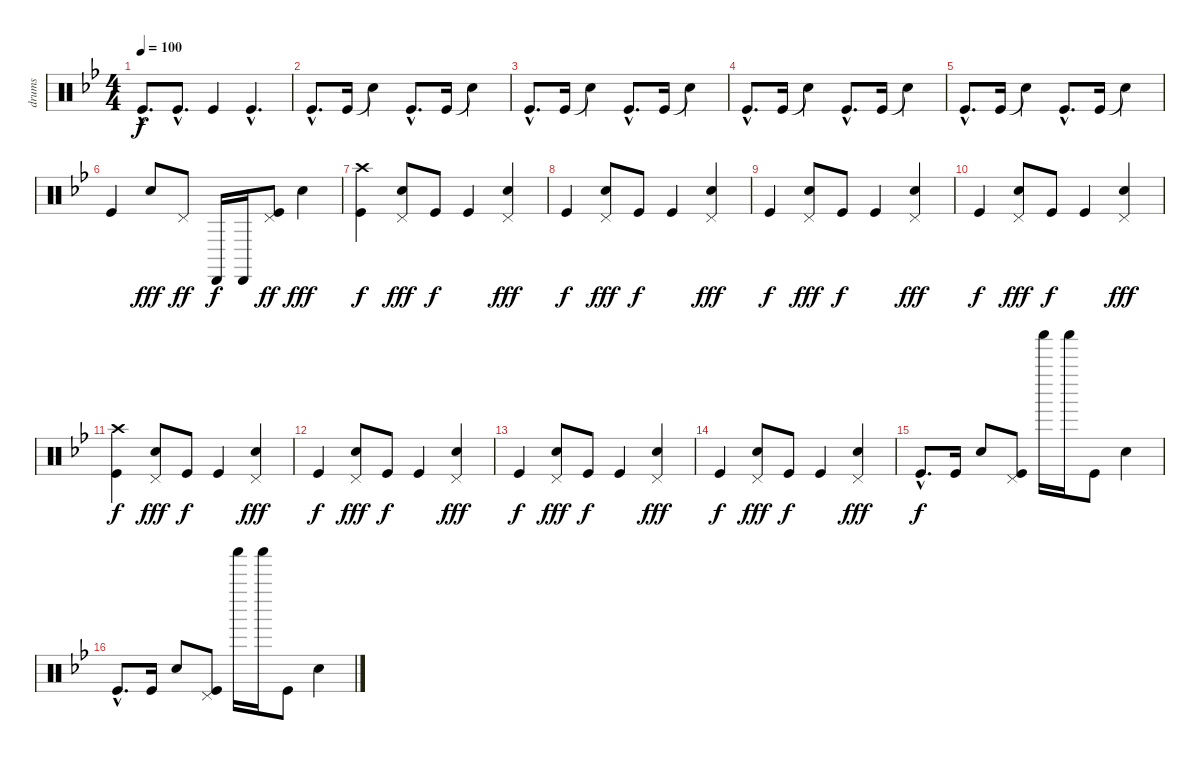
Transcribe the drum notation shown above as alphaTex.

\track ("drums" "drums") {instrument percussion}
\staff {score}
\articulation defaults
\ts (4 4)
\tempo 100
\clef neutral
\ks gminor "Kick (hit)"{hac}.8{d dy f} "Kick (hit)"{hac}.8{d} "Kick (hit)".4 "Kick (hit)"{hac}.4{d}
|
"Kick (hit)"{hac}.8{d} "Kick (hit)".16 "Snare (hit)"{t}.4 "Kick (hit)"{hac}.8{d} "Kick (hit)".16 "Snare (hit)"{t}.4 |
"Kick (hit)"{hac}.8{d} "Kick (hit)".16 "Snare (hit)"{t}.4 "Kick (hit)"{hac}.8{d} "Kick (hit)".16 "Snare (hit)"{t}.4 |
"Kick (hit)"{hac}.8{d} "Kick (hit)".16 "Snare (hit)"{t}.4 "Kick (hit)"{hac}.8{d} "Kick (hit)".16 "Snare (hit)"{t}.4 |
"Kick (hit)"{hac}.8{d} "Kick (hit)".16 "Snare (hit)"{t}.4 "Kick (hit)"{hac}.8{d} "Kick (hit)".16 "Snare (hit)"{t}.4 |
"Kick (hit)".4 "Electric Snare (hit)".8{dy fff} "Pedal Hi-Hat (hit)".8{dy ff} "Cabasa (hit)".16{dy f} "Cabasa (hit)".16 ("Pedal Hi-Hat (hit)" "Kick (hit)").8{dy ff} "Electric Snare (hit)".4{dy fff} |
("Crash high (hit)" "Kick (hit)").4{dy f} ("Pedal Hi-Hat (hit)" "Electric Snare (hit)").8{dy fff} "Kick (hit)".8{dy f} "Kick (hit)".4 ("Pedal Hi-Hat (hit)" "Electric Snare (hit)").4{dy fff} |
"Kick (hit)".4{dy f} ("Pedal Hi-Hat (hit)" "Electric Snare (hit)").8{dy fff} "Kick (hit)".8{dy f} "Kick (hit)".4 ("Pedal Hi-Hat (hit)" "Electric Snare (hit)").4{dy fff} |
"Kick (hit)".4{dy f} ("Pedal Hi-Hat (hit)" "Electric Snare (hit)").8{dy fff} "Kick (hit)".8{dy f} "Kick (hit)".4 ("Pedal Hi-Hat (hit)" "Electric Snare (hit)").4{dy fff} |
"Kick (hit)".4{dy f} ("Pedal Hi-Hat (hit)" "Electric Snare (hit)").8{dy fff} "Kick (hit)".8{dy f} "Kick (hit)".4 ("Pedal Hi-Hat (hit)" "Electric Snare (hit)").4{dy fff} |
("Crash high (hit)" "Kick (hit)").4{dy f} ("Pedal Hi-Hat (hit)" "Electric Snare (hit)").8{dy fff} "Kick (hit)".8{dy f} "Kick (hit)".4 ("Pedal Hi-Hat (hit)" "Electric Snare (hit)").4{dy fff} |
"Kick (hit)".4{dy f} ("Pedal Hi-Hat (hit)" "Electric Snare (hit)").8{dy fff} "Kick (hit)".8{dy f} "Kick (hit)".4 ("Pedal Hi-Hat (hit)" "Electric Snare (hit)").4{dy fff} |
"Kick (hit)".4{dy f} ("Pedal Hi-Hat (hit)" "Electric Snare (hit)").8{dy fff} "Kick (hit)".8{dy f} "Kick (hit)".4 ("Pedal Hi-Hat (hit)" "Electric Snare (hit)").4{dy fff} |
"Kick (hit)".4{dy f} ("Pedal Hi-Hat (hit)" "Electric Snare (hit)").8{dy fff} "Kick (hit)".8{dy f} "Kick (hit)".4 ("Pedal Hi-Hat (hit)" "Electric Snare (hit)").4{dy fff} |
"Kick (hit)"{hac}.8{d dy f} "Kick (hit)".16 "Electric Snare (hit)".8 ("Pedal Hi-Hat (hit)" "Kick (hit)").8 "Shaker (hit)".16 "Shaker (hit)".16 "Kick (hit)".8 "Electric Snare (hit)".4 |
"Kick (hit)"{hac}.8{d} "Kick (hit)".16 "Electric Snare (hit)".8 ("Pedal Hi-Hat (hit)" "Kick (hit)").8 "Shaker (hit)".16 "Shaker (hit)".16 "Kick (hit)".8 "Electric Snare (hit)".4
